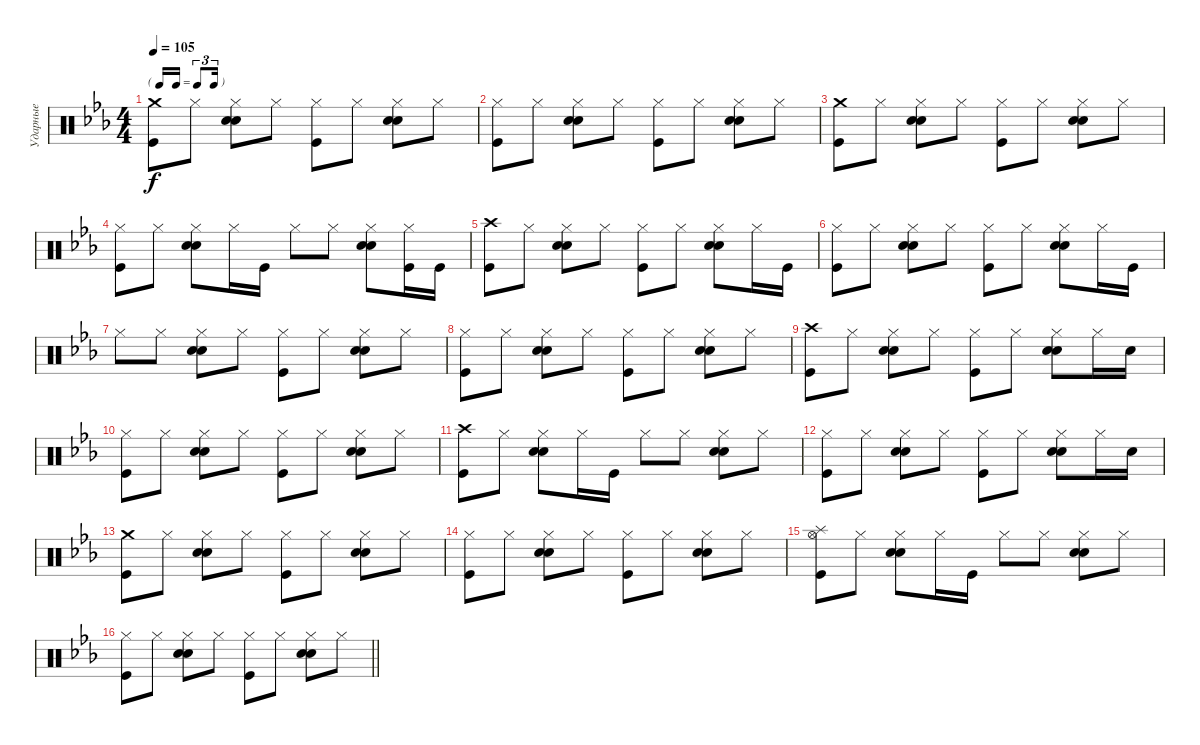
\track ("Ударные" "Ударные") {instrument percussion}
\staff {score}
\articulation defaults
\ts (4 4)
\tf triplet16th
\tempo 105
\clef neutral
\ks cminor
("Kick (hit)" "Crash medium (hit)").8{dy f} "Hi-Hat (closed)".8 ("Snare (hit) 2" "Hi-Hat (closed)" "Hand Clap (hit)").8 "Hi-Hat (closed)".8 ("Kick (hit)" "Hi-Hat (closed)").8 "Hi-Hat (closed)".8 ("Snare (hit) 2" "Hi-Hat (closed)" "Hand Clap (hit)").8 "Hi-Hat (closed)".8 |
("Kick (hit)" "Hi-Hat (closed)").8 "Hi-Hat (closed)".8 ("Snare (hit) 2" "Hi-Hat (closed)" "Hand Clap (hit)").8 "Hi-Hat (closed)".8 ("Kick (hit)" "Hi-Hat (closed)").8 "Hi-Hat (closed)".8 ("Snare (hit) 2" "Hi-Hat (closed)" "Hand Clap (hit)").8 "Hi-Hat (closed)".8 |
("Kick (hit)" "Crash medium (hit)").8 "Hi-Hat (closed)".8 ("Snare (hit) 2" "Hi-Hat (closed)" "Hand Clap (hit)").8 "Hi-Hat (closed)".8 ("Kick (hit)" "Hi-Hat (closed)").8 "Hi-Hat (closed)".8 ("Snare (hit) 2" "Hi-Hat (closed)" "Hand Clap (hit)").8 "Hi-Hat (closed)".8 |
("Kick (hit)" "Hi-Hat (closed)").8 "Hi-Hat (closed)".8 ("Snare (hit) 2" "Hi-Hat (closed)" "Hand Clap (hit)").8 "Hi-Hat (closed)".16 "Kick (hit)".16 "Hi-Hat (closed)".8 "Hi-Hat (closed)".8 ("Snare (hit) 2" "Hi-Hat (closed)" "Hand Clap (hit)").8 ("Hi-Hat (closed)" "Kick (hit)").16 "Kick (hit)".16 |
("Kick (hit)" "Crash high (hit)").8 "Hi-Hat (closed)".8 ("Snare (hit) 2" "Hi-Hat (closed)" "Hand Clap (hit)").8 "Hi-Hat (closed)".8 ("Kick (hit)" "Hi-Hat (closed)").8 "Hi-Hat (closed)".8 ("Snare (hit) 2" "Hi-Hat (closed)" "Hand Clap (hit)").8 "Hi-Hat (closed)".16 "Kick (hit)".16 |
("Kick (hit)" "Hi-Hat (closed)").8 "Hi-Hat (closed)".8 ("Snare (hit) 2" "Hi-Hat (closed)" "Hand Clap (hit)").8 "Hi-Hat (closed)".8 ("Kick (hit)" "Hi-Hat (closed)").8 "Hi-Hat (closed)".8 ("Snare (hit) 2" "Hi-Hat (closed)" "Hand Clap (hit)").8 "Hi-Hat (closed)".16 "Kick (hit)".16 |
"Hi-Hat (closed)".8 "Hi-Hat (closed)".8 ("Snare (hit) 2" "Hi-Hat (closed)" "Hand Clap (hit)").8 "Hi-Hat (closed)".8 ("Kick (hit)" "Hi-Hat (closed)").8 "Hi-Hat (closed)".8 ("Snare (hit) 2" "Hi-Hat (closed)" "Hand Clap (hit)").8 "Hi-Hat (closed)".8 |
("Kick (hit)" "Hi-Hat (closed)").8 "Hi-Hat (closed)".8 ("Snare (hit) 2" "Hi-Hat (closed)" "Hand Clap (hit)").8 "Hi-Hat (closed)".8 ("Kick (hit)" "Hi-Hat (closed)").8 "Hi-Hat (closed)".8 ("Snare (hit) 2" "Hi-Hat (closed)" "Hand Clap (hit)").8 "Hi-Hat (closed)".8 |
("Kick (hit)" "Crash high (hit)").8 "Hi-Hat (closed)".8 ("Snare (hit) 2" "Hi-Hat (closed)" "Hand Clap (hit)").8 "Hi-Hat (closed)".8 ("Kick (hit)" "Hi-Hat (closed)").8 "Hi-Hat (closed)".8 ("Snare (hit) 2" "Hi-Hat (closed)" "Hand Clap (hit)").8 "Hi-Hat (closed)".16 "Snare (hit) 2".16 |
("Kick (hit)" "Hi-Hat (closed)").8 "Hi-Hat (closed)".8 ("Snare (hit) 2" "Hi-Hat (closed)" "Hand Clap (hit)").8 "Hi-Hat (closed)".8 ("Kick (hit)" "Hi-Hat (closed)").8 "Hi-Hat (closed)".8 ("Snare (hit) 2" "Hi-Hat (closed)" "Hand Clap (hit)").8 "Hi-Hat (closed)".8 |
("Kick (hit)" "Crash high (hit)").8 "Hi-Hat (closed)".8 ("Snare (hit) 2" "Hi-Hat (closed)" "Hand Clap (hit)").8 "Hi-Hat (closed)".16 "Kick (hit)".16 "Hi-Hat (closed)".8 "Hi-Hat (closed)".8 ("Snare (hit) 2" "Hi-Hat (closed)" "Hand Clap (hit)").8 "Hi-Hat (closed)".8 |
("Kick (hit)" "Hi-Hat (closed)").8 "Hi-Hat (closed)".8 ("Snare (hit) 2" "Hi-Hat (closed)" "Hand Clap (hit)").8 "Hi-Hat (closed)".8 ("Kick (hit)" "Hi-Hat (closed)").8 "Hi-Hat (closed)".8 ("Snare (hit) 2" "Hi-Hat (closed)" "Hand Clap (hit)").8 "Hi-Hat (closed)".16 "Snare (hit) 2".16 |
("Kick (hit)" "Crash medium (hit)").8 "Hi-Hat (closed)".8 ("Snare (hit) 2" "Hi-Hat (closed)" "Hand Clap (hit)").8 "Hi-Hat (closed)".8 ("Kick (hit)" "Hi-Hat (closed)").8 "Hi-Hat (closed)".8 ("Snare (hit) 2" "Hi-Hat (closed)" "Hand Clap (hit)").8 "Hi-Hat (closed)".8 |
("Kick (hit)" "Hi-Hat (closed)").8 "Hi-Hat (closed)".8 ("Snare (hit) 2" "Hi-Hat (closed)" "Hand Clap (hit)").8 "Hi-Hat (closed)".8 ("Kick (hit)" "Hi-Hat (closed)").8 "Hi-Hat (closed)".8 ("Snare (hit) 2" "Hi-Hat (closed)" "Hand Clap (hit)").8 "Hi-Hat (closed)".8 |
("Kick (hit)" "Splash (hit)" "Hi-Hat (open)").8 "Hi-Hat (closed)".8 ("Snare (hit) 2" "Hi-Hat (closed)" "Hand Clap (hit)").8 "Hi-Hat (closed)".16 "Kick (hit)".16 "Hi-Hat (closed)".8 "Hi-Hat (closed)".8 ("Snare (hit) 2" "Hi-Hat (closed)" "Hand Clap (hit)").8 "Hi-Hat (closed)".8 |
\barLineRight lightlight
("Kick (hit)" "Hi-Hat (closed)").8 "Hi-Hat (closed)".8 ("Snare (hit) 2" "Hi-Hat (closed)" "Hand Clap (hit)").8 "Hi-Hat (closed)".8 ("Kick (hit)" "Hi-Hat (closed)").8 "Hi-Hat (closed)".8 ("Snare (hit) 2" "Hi-Hat (closed)" "Hand Clap (hit)").8 "Hi-Hat (closed)".8
